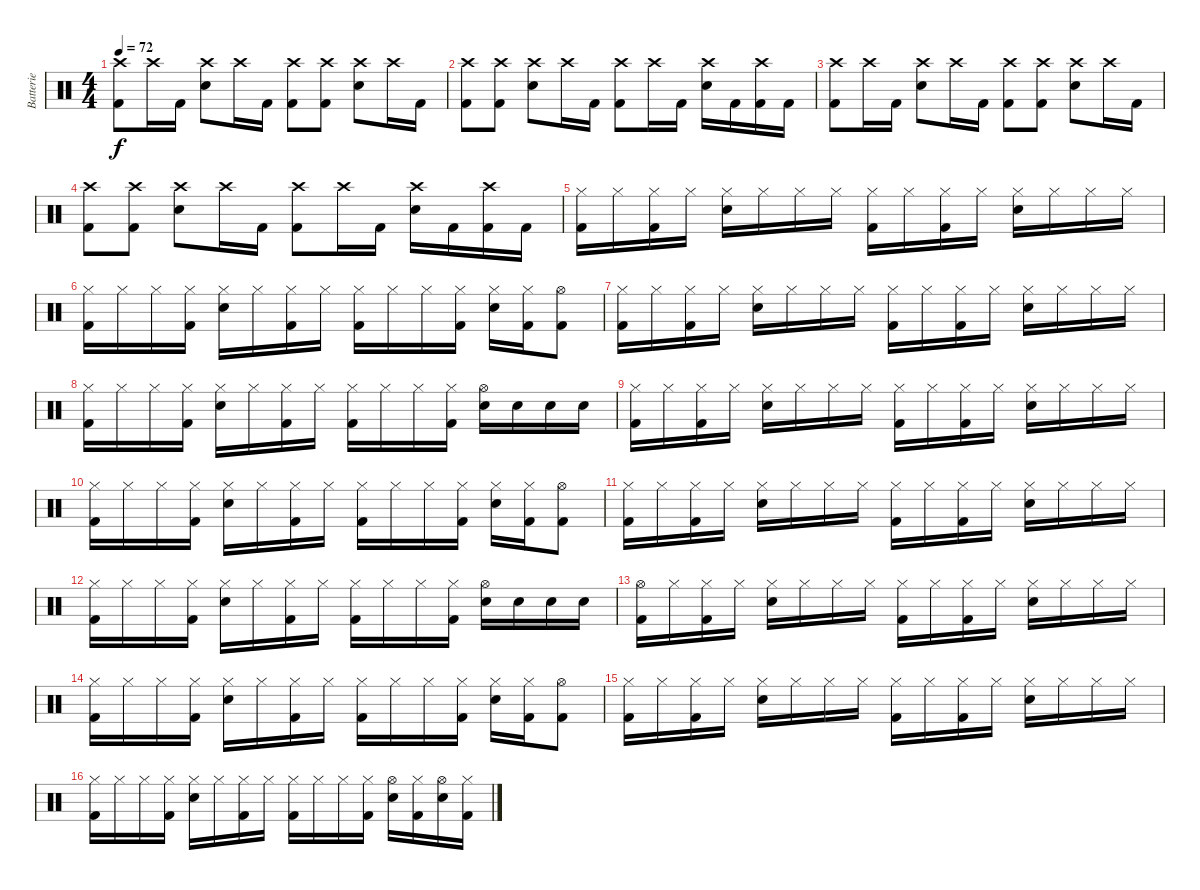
\track ("Batterie" "Batterie") {instrument percussion}
\staff {score}
\articulation defaults
\ts (4 4)
\tempo 72
\clef neutral
\ks c
("Crash high (hit)" "Kick (hit) 2").8{dy f} "Crash high (hit)".16 "Kick (hit) 2".16 ("Crash high (hit)" "Snare (hit) 2").8 "Crash high (hit)".16 "Kick (hit) 2".16 ("Crash high (hit)" "Kick (hit) 2").8 ("Crash high (hit)" "Kick (hit) 2").8 ("Crash high (hit)" "Snare (hit) 2").8 "Crash high (hit)".16 "Kick (hit) 2".16 |
("Crash high (hit)" "Kick (hit) 2").8 ("Crash high (hit)" "Kick (hit) 2").8 ("Crash high (hit)" "Snare (hit) 2").8 "Crash high (hit)".16 "Kick (hit) 2".16 ("Crash high (hit)" "Kick (hit) 2").8 "Crash high (hit)".16 "Kick (hit) 2".16 ("Crash high (hit)" "Snare (hit) 2").16 "Kick (hit) 2".16 ("Crash high (hit)" "Kick (hit) 2").16 "Kick (hit) 2".16 |
("Crash high (hit)" "Kick (hit) 2").8 "Crash high (hit)".16 "Kick (hit) 2".16 ("Crash high (hit)" "Snare (hit) 2").8 "Crash high (hit)".16 "Kick (hit) 2".16 ("Crash high (hit)" "Kick (hit) 2").8 ("Crash high (hit)" "Kick (hit) 2").8 ("Crash high (hit)" "Snare (hit) 2").8 "Crash high (hit)".16 "Kick (hit) 2".16 |
("Crash high (hit)" "Kick (hit) 2").8 ("Crash high (hit)" "Kick (hit) 2").8 ("Crash high (hit)" "Snare (hit) 2").8 "Crash high (hit)".16 "Kick (hit) 2".16 ("Crash high (hit)" "Kick (hit) 2").8 "Crash high (hit)".16 "Kick (hit) 2".16 ("Crash high (hit)" "Snare (hit) 2").16 "Kick (hit) 2".16 ("Crash high (hit)" "Kick (hit) 2").16 "Kick (hit) 2".16 |
("Hi-Hat (closed)" "Kick (hit) 2").16 "Hi-Hat (closed)".16 ("Hi-Hat (closed)" "Kick (hit) 2").16 "Hi-Hat (closed)".16 ("Hi-Hat (closed)" "Snare (hit) 2").16 "Hi-Hat (closed)".16 "Hi-Hat (closed)".16 "Hi-Hat (closed)".16 ("Hi-Hat (closed)" "Kick (hit) 2").16 "Hi-Hat (closed)".16 ("Hi-Hat (closed)" "Kick (hit) 2").16 "Hi-Hat (closed)".16 ("Hi-Hat (closed)" "Snare (hit) 2").16 "Hi-Hat (closed)".16 "Hi-Hat (closed)".16 "Hi-Hat (closed)".16 |
("Hi-Hat (closed)" "Kick (hit) 2").16 "Hi-Hat (closed)".16 "Hi-Hat (closed)".16 ("Hi-Hat (closed)" "Kick (hit) 2").16 ("Hi-Hat (closed)" "Snare (hit) 2").16 "Hi-Hat (closed)".16 ("Hi-Hat (closed)" "Kick (hit) 2").16 "Hi-Hat (closed)".16 ("Hi-Hat (closed)" "Kick (hit) 2").16 "Hi-Hat (closed)".16 "Hi-Hat (closed)".16 ("Hi-Hat (closed)" "Kick (hit) 2").16 ("Hi-Hat (closed)" "Snare (hit) 2").16 ("Hi-Hat (closed)" "Kick (hit) 2").16 ("Hi-Hat (open)" "Kick (hit) 2").8 |
("Hi-Hat (closed)" "Kick (hit) 2").16 "Hi-Hat (closed)".16 ("Hi-Hat (closed)" "Kick (hit) 2").16 "Hi-Hat (closed)".16 ("Hi-Hat (closed)" "Snare (hit) 2").16 "Hi-Hat (closed)".16 "Hi-Hat (closed)".16 "Hi-Hat (closed)".16 ("Hi-Hat (closed)" "Kick (hit) 2").16 "Hi-Hat (closed)".16 ("Hi-Hat (closed)" "Kick (hit) 2").16 "Hi-Hat (closed)".16 ("Hi-Hat (closed)" "Snare (hit) 2").16 "Hi-Hat (closed)".16 "Hi-Hat (closed)".16 "Hi-Hat (closed)".16 |
("Hi-Hat (closed)" "Kick (hit) 2").16 "Hi-Hat (closed)".16 "Hi-Hat (closed)".16 ("Hi-Hat (closed)" "Kick (hit) 2").16 ("Hi-Hat (closed)" "Snare (hit) 2").16 "Hi-Hat (closed)".16 ("Hi-Hat (closed)" "Kick (hit) 2").16 "Hi-Hat (closed)".16 ("Hi-Hat (closed)" "Kick (hit) 2").16 "Hi-Hat (closed)".16 "Hi-Hat (closed)".16 ("Hi-Hat (closed)" "Kick (hit) 2").16 ("Hi-Hat (open)" "Snare (hit) 2").16 "Snare (hit) 2".16 "Snare (hit) 2".16 "Snare (hit) 2".16 |
("Hi-Hat (closed)" "Kick (hit) 2").16 "Hi-Hat (closed)".16 ("Hi-Hat (closed)" "Kick (hit) 2").16 "Hi-Hat (closed)".16 ("Hi-Hat (closed)" "Snare (hit) 2").16 "Hi-Hat (closed)".16 "Hi-Hat (closed)".16 "Hi-Hat (closed)".16 ("Hi-Hat (closed)" "Kick (hit) 2").16 "Hi-Hat (closed)".16 ("Hi-Hat (closed)" "Kick (hit) 2").16 "Hi-Hat (closed)".16 ("Hi-Hat (closed)" "Snare (hit) 2").16 "Hi-Hat (closed)".16 "Hi-Hat (closed)".16 "Hi-Hat (closed)".16 |
("Hi-Hat (closed)" "Kick (hit) 2").16 "Hi-Hat (closed)".16 "Hi-Hat (closed)".16 ("Hi-Hat (closed)" "Kick (hit) 2").16 ("Hi-Hat (closed)" "Snare (hit) 2").16 "Hi-Hat (closed)".16 ("Hi-Hat (closed)" "Kick (hit) 2").16 "Hi-Hat (closed)".16 ("Hi-Hat (closed)" "Kick (hit) 2").16 "Hi-Hat (closed)".16 "Hi-Hat (closed)".16 ("Hi-Hat (closed)" "Kick (hit) 2").16 ("Hi-Hat (closed)" "Snare (hit) 2").16 ("Hi-Hat (closed)" "Kick (hit) 2").16 ("Hi-Hat (open)" "Kick (hit) 2").8 |
("Hi-Hat (closed)" "Kick (hit) 2").16 "Hi-Hat (closed)".16 ("Hi-Hat (closed)" "Kick (hit) 2").16 "Hi-Hat (closed)".16 ("Hi-Hat (closed)" "Snare (hit) 2").16 "Hi-Hat (closed)".16 "Hi-Hat (closed)".16 "Hi-Hat (closed)".16 ("Hi-Hat (closed)" "Kick (hit) 2").16 "Hi-Hat (closed)".16 ("Hi-Hat (closed)" "Kick (hit) 2").16 "Hi-Hat (closed)".16 ("Hi-Hat (closed)" "Snare (hit) 2").16 "Hi-Hat (closed)".16 "Hi-Hat (closed)".16 "Hi-Hat (closed)".16 |
("Hi-Hat (closed)" "Kick (hit) 2").16 "Hi-Hat (closed)".16 "Hi-Hat (closed)".16 ("Hi-Hat (closed)" "Kick (hit) 2").16 ("Hi-Hat (closed)" "Snare (hit) 2").16 "Hi-Hat (closed)".16 ("Hi-Hat (closed)" "Kick (hit) 2").16 "Hi-Hat (closed)".16 ("Hi-Hat (closed)" "Kick (hit) 2").16 "Hi-Hat (closed)".16 "Hi-Hat (closed)".16 ("Hi-Hat (closed)" "Kick (hit) 2").16 ("Hi-Hat (open)" "Snare (hit) 2").16 "Snare (hit) 2".16 "Snare (hit) 2".16 "Snare (hit) 2".16 |
("Hi-Hat (open)" "Kick (hit) 2").16 "Hi-Hat (closed)".16 ("Hi-Hat (closed)" "Kick (hit) 2").16 "Hi-Hat (closed)".16 ("Hi-Hat (closed)" "Snare (hit) 2").16 "Hi-Hat (closed)".16 "Hi-Hat (closed)".16 "Hi-Hat (closed)".16 ("Hi-Hat (closed)" "Kick (hit) 2").16 "Hi-Hat (closed)".16 ("Hi-Hat (closed)" "Kick (hit) 2").16 "Hi-Hat (closed)".16 ("Hi-Hat (closed)" "Snare (hit) 2").16 "Hi-Hat (closed)".16 "Hi-Hat (closed)".16 "Hi-Hat (closed)".16 |
("Hi-Hat (closed)" "Kick (hit) 2").16 "Hi-Hat (closed)".16 "Hi-Hat (closed)".16 ("Hi-Hat (closed)" "Kick (hit) 2").16 ("Hi-Hat (closed)" "Snare (hit) 2").16 "Hi-Hat (closed)".16 ("Hi-Hat (closed)" "Kick (hit) 2").16 "Hi-Hat (closed)".16 ("Hi-Hat (closed)" "Kick (hit) 2").16 "Hi-Hat (closed)".16 "Hi-Hat (closed)".16 ("Hi-Hat (closed)" "Kick (hit) 2").16 ("Hi-Hat (closed)" "Snare (hit) 2").16 ("Hi-Hat (closed)" "Kick (hit) 2").16 ("Hi-Hat (open)" "Kick (hit) 2").8 |
("Hi-Hat (closed)" "Kick (hit) 2").16 "Hi-Hat (closed)".16 ("Hi-Hat (closed)" "Kick (hit) 2").16 "Hi-Hat (closed)".16 ("Hi-Hat (closed)" "Snare (hit) 2").16 "Hi-Hat (closed)".16 "Hi-Hat (closed)".16 "Hi-Hat (closed)".16 ("Hi-Hat (closed)" "Kick (hit) 2").16 "Hi-Hat (closed)".16 ("Hi-Hat (closed)" "Kick (hit) 2").16 "Hi-Hat (closed)".16 ("Hi-Hat (closed)" "Snare (hit) 2").16 "Hi-Hat (closed)".16 "Hi-Hat (closed)".16 "Hi-Hat (closed)".16 |
("Hi-Hat (closed)" "Kick (hit) 2").16 "Hi-Hat (closed)".16 "Hi-Hat (closed)".16 ("Hi-Hat (closed)" "Kick (hit) 2").16 ("Hi-Hat (closed)" "Snare (hit) 2").16 "Hi-Hat (closed)".16 ("Hi-Hat (closed)" "Kick (hit) 2").16 "Hi-Hat (closed)".16 ("Hi-Hat (closed)" "Kick (hit) 2").16 "Hi-Hat (closed)".16 "Hi-Hat (closed)".16 ("Hi-Hat (closed)" "Kick (hit) 2").16 ("Hi-Hat (open)" "Snare (hit) 2").16 ("Hi-Hat (closed)" "Kick (hit) 2").16 ("Hi-Hat (open)" "Snare (hit) 2").16 ("Hi-Hat (closed)" "Kick (hit) 2").16
